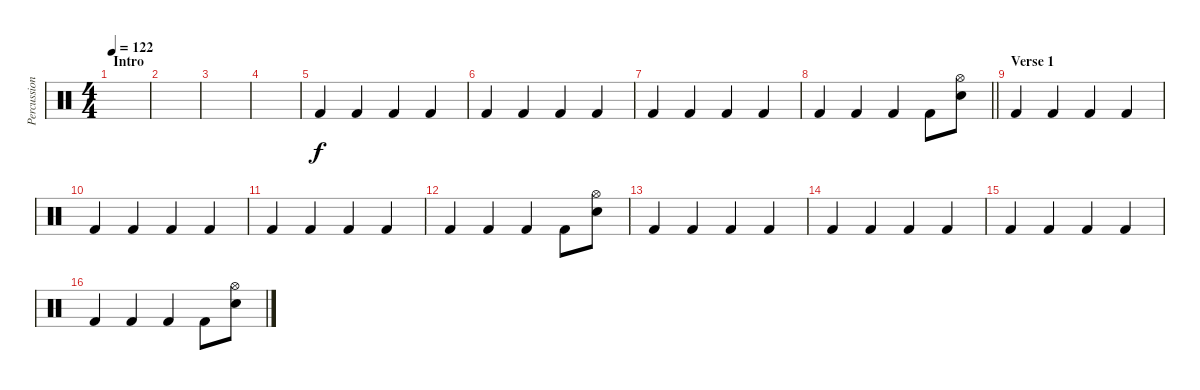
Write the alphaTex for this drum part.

\track ("Percussion" "Percussion") {instrument percussion}
\staff {score}
\articulation defaults
\ts (4 4)
\section ("" "Intro")
\tempo 122
\clef neutral
\ks c
|
|
|
|
"Kick (hit) 2".4 "Kick (hit) 2".4 "Kick (hit) 2".4 "Kick (hit) 2".4 |
"Kick (hit) 2".4 "Kick (hit) 2".4 "Kick (hit) 2".4 "Kick (hit) 2".4 |
"Kick (hit) 2".4 "Kick (hit) 2".4 "Kick (hit) 2".4 "Kick (hit) 2".4 |
\barLineRight lightlight "Kick (hit) 2".4 "Kick (hit) 2".4 "Kick (hit) 2".4 "Kick (hit) 2".8
("Hi-Hat (open)" "Snare (hit) 2").8 |
\section ("" "Verse 1")
"Kick (hit) 2".4 "Kick (hit) 2".4 "Kick (hit) 2".4 "Kick (hit) 2".4 |
"Kick (hit) 2".4 "Kick (hit) 2".4 "Kick (hit) 2".4 "Kick (hit) 2".4 |
"Kick (hit) 2".4 "Kick (hit) 2".4 "Kick (hit) 2".4 "Kick (hit) 2".4 |
"Kick (hit) 2".4 "Kick (hit) 2".4 "Kick (hit) 2".4 "Kick (hit) 2".8 ("Hi-Hat (open)" "Snare (hit) 2").8 |
"Kick (hit) 2".4 "Kick (hit) 2".4 "Kick (hit) 2".4 "Kick (hit) 2".4 |
"Kick (hit) 2".4 "Kick (hit) 2".4 "Kick (hit) 2".4 "Kick (hit) 2".4 |
"Kick (hit) 2".4 "Kick (hit) 2".4 "Kick (hit) 2".4 "Kick (hit) 2".4 |
"Kick (hit) 2".4 "Kick (hit) 2".4 "Kick (hit) 2".4 "Kick (hit) 2".8 ("Hi-Hat (open)" "Snare (hit) 2").8
